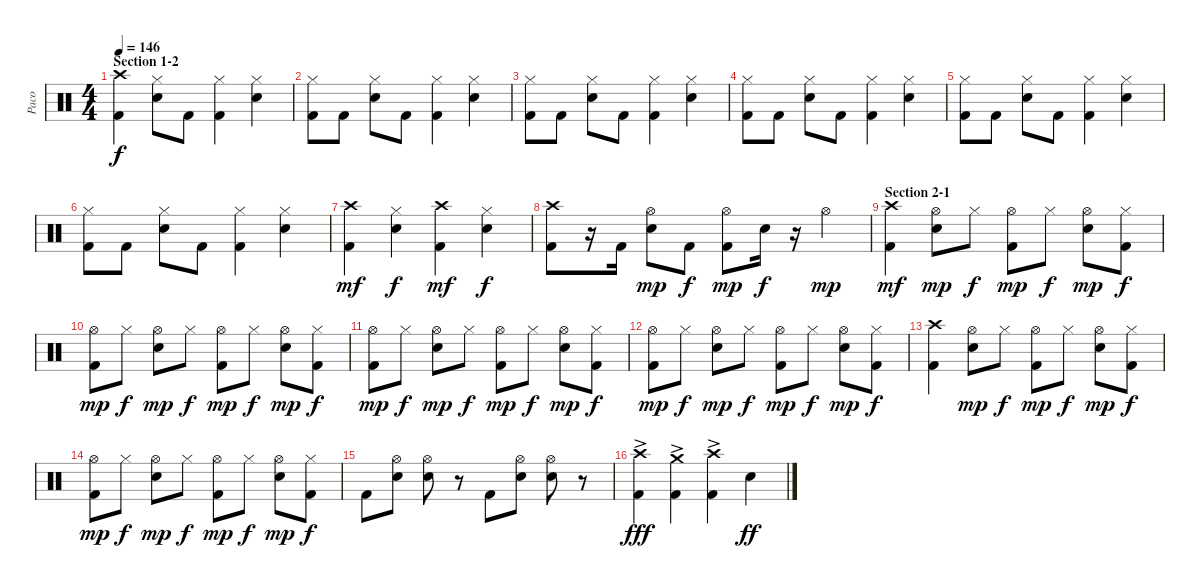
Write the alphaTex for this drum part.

\track ("Paco" "Paco") {instrument percussion}
\staff {score}
\articulation defaults
\ts (4 4)
\section ("" "Section 1-2")
\tempo 146
\clef neutral
\ks c
("Crash high (hit)" "Kick (hit) 2").4{dy f} ("Hi-Hat (closed)" "Snare (hit) 2").8 "Kick (hit) 2".8 ("Hi-Hat (closed)" "Kick (hit) 2").4 ("Hi-Hat (closed)" "Snare (hit) 2").4 |
("Hi-Hat (closed)" "Kick (hit) 2").8 "Kick (hit) 2".8 ("Hi-Hat (closed)" "Snare (hit) 2").8 "Kick (hit) 2".8 ("Hi-Hat (closed)" "Kick (hit) 2").4 ("Hi-Hat (closed)" "Snare (hit) 2").4 |
("Hi-Hat (closed)" "Kick (hit) 2").8 "Kick (hit) 2".8 ("Hi-Hat (closed)" "Snare (hit) 2").8 "Kick (hit) 2".8 ("Hi-Hat (closed)" "Kick (hit) 2").4 ("Hi-Hat (closed)" "Snare (hit) 2").4 |
("Hi-Hat (closed)" "Kick (hit) 2").8 "Kick (hit) 2".8 ("Hi-Hat (closed)" "Snare (hit) 2").8 "Kick (hit) 2".8 ("Hi-Hat (closed)" "Kick (hit) 2").4 ("Hi-Hat (closed)" "Snare (hit) 2").4 |
("Hi-Hat (closed)" "Kick (hit) 2").8 "Kick (hit) 2".8 ("Hi-Hat (closed)" "Snare (hit) 2").8 "Kick (hit) 2".8 ("Hi-Hat (closed)" "Kick (hit) 2").4 ("Hi-Hat (closed)" "Snare (hit) 2").4 |
("Hi-Hat (closed)" "Kick (hit) 2").8 "Kick (hit) 2".8 ("Hi-Hat (closed)" "Snare (hit) 2").8 "Kick (hit) 2".8 ("Hi-Hat (closed)" "Kick (hit) 2").4 ("Hi-Hat (closed)" "Snare (hit) 2").4 |
("Crash high (hit)" "Kick (hit) 2").4{dy mf} ("Hi-Hat (closed)" "Snare (hit) 2").4{dy f} ("Crash high (hit)" "Kick (hit) 2").4{dy mf} ("Hi-Hat (closed)" "Snare (hit) 2").4{dy f} |
("Crash high (hit)" "Kick (hit) 2").8 r.16 "Kick (hit) 2".16 ("Hi-Hat (open)" "Snare (hit) 2").8{dy mp} "Kick (hit) 2".8{dy f} ("Hi-Hat (open)" "Kick (hit) 2").8{dy mp} "Snare (hit) 2".16{dy f} r.16 "Hi-Hat (open)".4{dy mp} |
\section ("" "Section 2-1")
("Crash high (hit)" "Kick (hit) 2").4{dy mf} ("Hi-Hat (open)" "Snare (hit) 2").8{dy mp} "Hi-Hat (closed)".8{dy f} ("Hi-Hat (open)" "Kick (hit) 2").8{dy mp} "Hi-Hat (closed)".8{dy f} ("Hi-Hat (open)" "Snare (hit) 2").8{dy mp} ("Hi-Hat (closed)" "Kick (hit) 2").8{dy f} |
("Hi-Hat (open)" "Kick (hit) 2").8{dy mp} "Hi-Hat (closed)".8{dy f} ("Hi-Hat (open)" "Snare (hit) 2").8{dy mp} "Hi-Hat (closed)".8{dy f} ("Hi-Hat (open)" "Kick (hit) 2").8{dy mp} "Hi-Hat (closed)".8{dy f} ("Hi-Hat (open)" "Snare (hit) 2").8{dy mp} ("Hi-Hat (closed)" "Kick (hit) 2").8{dy f} |
("Hi-Hat (open)" "Kick (hit) 2").8{dy mp} "Hi-Hat (closed)".8{dy f} ("Hi-Hat (open)" "Snare (hit) 2").8{dy mp} "Hi-Hat (closed)".8{dy f} ("Hi-Hat (open)" "Kick (hit) 2").8{dy mp} "Hi-Hat (closed)".8{dy f} ("Hi-Hat (open)" "Snare (hit) 2").8{dy mp} ("Hi-Hat (closed)" "Kick (hit) 2").8{dy f} |
("Hi-Hat (open)" "Kick (hit) 2").8{dy mp} "Hi-Hat (closed)".8{dy f} ("Hi-Hat (open)" "Snare (hit) 2").8{dy mp} "Hi-Hat (closed)".8{dy f} ("Hi-Hat (open)" "Kick (hit) 2").8{dy mp} "Hi-Hat (closed)".8{dy f} ("Hi-Hat (open)" "Snare (hit) 2").8{dy mp} ("Hi-Hat (closed)" "Kick (hit) 2").8{dy f} |
("Crash high (hit)" "Kick (hit) 2").4 ("Hi-Hat (open)" "Snare (hit) 2").8{dy mp} "Hi-Hat (closed)".8{dy f} ("Hi-Hat (open)" "Kick (hit) 2").8{dy mp} "Hi-Hat (closed)".8{dy f} ("Hi-Hat (open)" "Snare (hit) 2").8{dy mp} ("Hi-Hat (closed)" "Kick (hit) 2").8{dy f} |
("Hi-Hat (open)" "Kick (hit) 2").8{dy mp} "Hi-Hat (closed)".8{dy f} ("Hi-Hat (open)" "Snare (hit) 2").8{dy mp} "Hi-Hat (closed)".8{dy f} ("Hi-Hat (open)" "Kick (hit) 2").8{dy mp} "Hi-Hat (closed)".8{dy f} ("Hi-Hat (open)" "Snare (hit) 2").8{dy mp} ("Hi-Hat (closed)" "Kick (hit) 2").8{dy f} |
"Kick (hit) 2".8 ("Hi-Hat (open)" "Snare (hit) 2").8 ("Hi-Hat (open)" "Snare (hit) 2").8 r.8 "Kick (hit) 2".8 ("Hi-Hat (open)" "Snare (hit) 2").8 ("Hi-Hat (open)" "Snare (hit) 2").8 r.8 |
("Crash high (hit)"{ac} "Kick (hit) 2").4{dy fff} ("Crash medium (hit)"{ac} "Kick (hit) 2").4 ("Crash high (hit)"{ac} "Kick (hit) 2").4 "Snare (hit) 2".4{dy ff}
